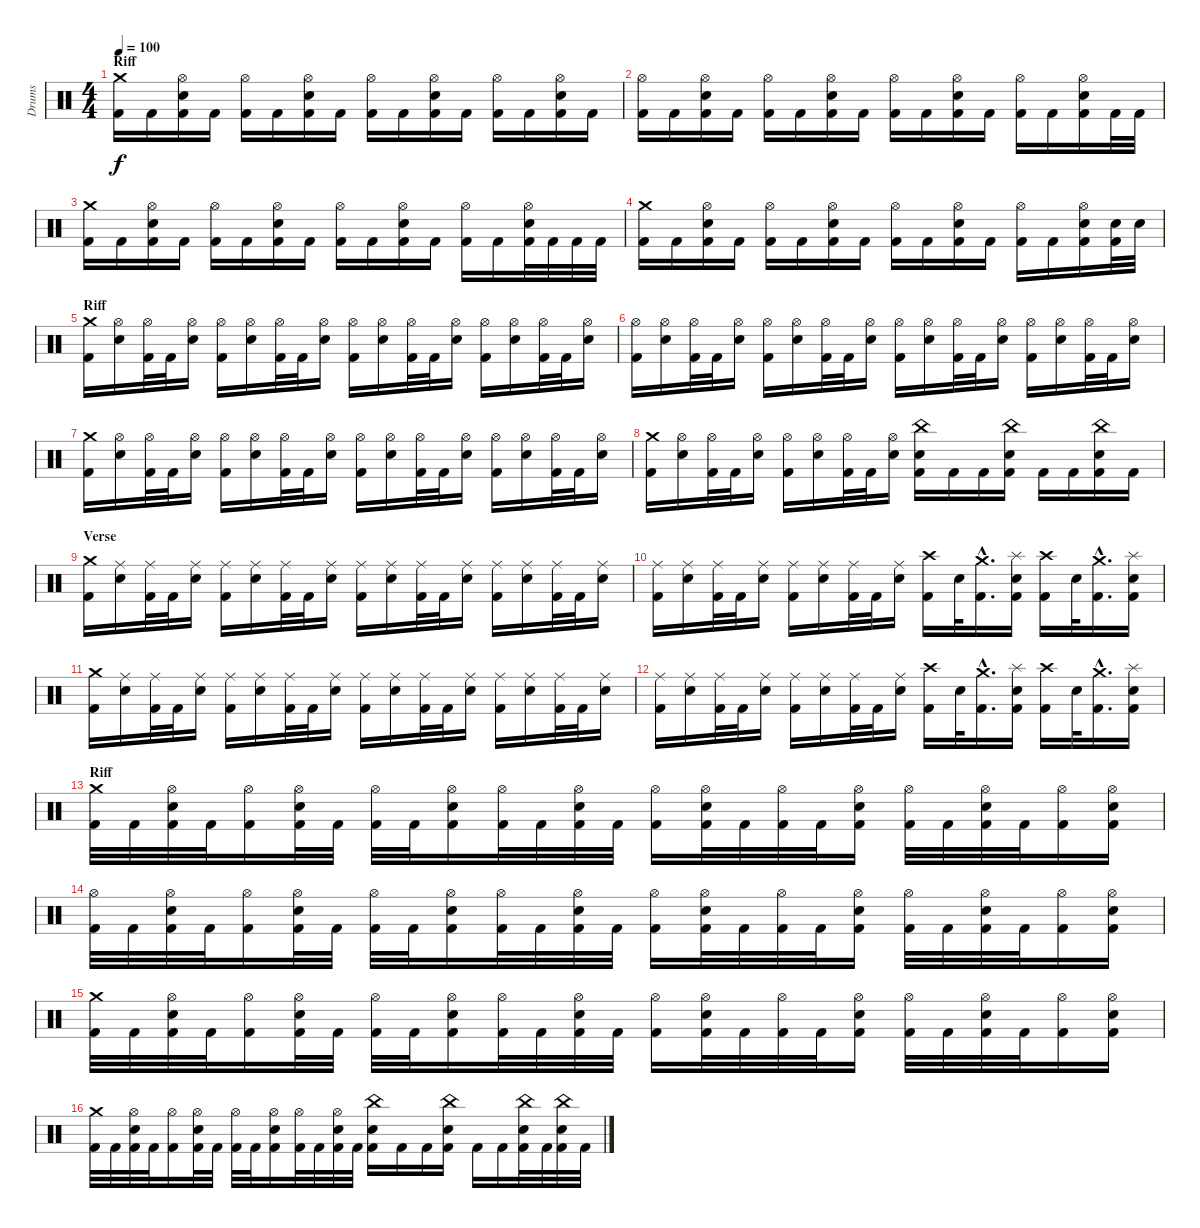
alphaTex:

\track ("Drums" "Drums") {instrument percussion}
\staff {score}
\articulation defaults
\ts (4 4)
\section ("" "Riff")
\tempo 100
\clef neutral
\ks c
("Crash medium (hit)" "Kick (hit) 2").16{dy f volume 15} "Kick (hit) 2".16 ("Hi-Hat (open)" "Electric Snare (hit)" "Kick (hit) 2").16 "Kick (hit) 2".16 ("Hi-Hat (open)" "Kick (hit) 2").16 "Kick (hit) 2".16 ("Hi-Hat (open)" "Electric Snare (hit)" "Kick (hit) 2").16 "Kick (hit) 2".16 ("Hi-Hat (open)" "Kick (hit) 2").16 "Kick (hit) 2".16 ("Hi-Hat (open)" "Electric Snare (hit)" "Kick (hit) 2").16 "Kick (hit) 2".16 ("Hi-Hat (open)" "Kick (hit) 2").16 "Kick (hit) 2".16 ("Hi-Hat (open)" "Electric Snare (hit)" "Kick (hit) 2").16 "Kick (hit) 2".16 |
("Hi-Hat (open)" "Kick (hit) 2").16 "Kick (hit) 2".16 ("Hi-Hat (open)" "Electric Snare (hit)" "Kick (hit) 2").16 "Kick (hit) 2".16 ("Hi-Hat (open)" "Kick (hit) 2").16 "Kick (hit) 2".16 ("Hi-Hat (open)" "Electric Snare (hit)" "Kick (hit) 2").16 "Kick (hit) 2".16 ("Hi-Hat (open)" "Kick (hit) 2").16 "Kick (hit) 2".16 ("Hi-Hat (open)" "Electric Snare (hit)" "Kick (hit) 2").16 "Kick (hit) 2".16 ("Hi-Hat (open)" "Kick (hit) 2").16 "Kick (hit) 2".16 ("Hi-Hat (open)" "Electric Snare (hit)" "Kick (hit) 2").16 "Kick (hit) 2".32 "Kick (hit) 2".32 |
("Crash medium (hit)" "Kick (hit) 2").16 "Kick (hit) 2".16 ("Hi-Hat (open)" "Electric Snare (hit)" "Kick (hit) 2").16 "Kick (hit) 2".16 ("Hi-Hat (open)" "Kick (hit) 2").16 "Kick (hit) 2".16 ("Hi-Hat (open)" "Electric Snare (hit)" "Kick (hit) 2").16 "Kick (hit) 2".16 ("Hi-Hat (open)" "Kick (hit) 2").16 "Kick (hit) 2".16 ("Hi-Hat (open)" "Electric Snare (hit)" "Kick (hit) 2").16 "Kick (hit) 2".16 ("Hi-Hat (open)" "Kick (hit) 2").16 "Kick (hit) 2".16 ("Hi-Hat (open)" "Electric Snare (hit)" "Kick (hit) 2").32 "Kick (hit) 2".32 "Kick (hit) 2".32 "Kick (hit) 2".32 |
("Crash medium (hit)" "Kick (hit) 2").16 "Kick (hit) 2".16 ("Hi-Hat (open)" "Electric Snare (hit)" "Kick (hit) 2").16 "Kick (hit) 2".16 ("Hi-Hat (open)" "Kick (hit) 2").16 "Kick (hit) 2".16 ("Hi-Hat (open)" "Electric Snare (hit)" "Kick (hit) 2").16 "Kick (hit) 2".16 ("Hi-Hat (open)" "Kick (hit) 2").16 "Kick (hit) 2".16 ("Hi-Hat (open)" "Electric Snare (hit)" "Kick (hit) 2").16 "Kick (hit) 2".16 ("Hi-Hat (open)" "Kick (hit) 2").16 "Kick (hit) 2".16 ("Hi-Hat (open)" "Electric Snare (hit)" "Kick (hit) 2").16 ("Electric Snare (hit)" "Kick (hit) 2").32 "Electric Snare (hit)".32 |
\section ("" "Riff")
("Crash medium (hit)" "Kick (hit) 2").16 ("Hi-Hat (open)" "Electric Snare (hit)").16 ("Hi-Hat (open)" "Kick (hit) 2").32 "Kick (hit) 2".32 ("Hi-Hat (open)" "Electric Snare (hit)").16 ("Hi-Hat (open)" "Kick (hit) 2").16 ("Hi-Hat (open)" "Electric Snare (hit)").16 ("Hi-Hat (open)" "Kick (hit) 2").32 "Kick (hit) 2".32 ("Hi-Hat (open)" "Electric Snare (hit)").16 ("Hi-Hat (open)" "Kick (hit) 2").16 ("Hi-Hat (open)" "Electric Snare (hit)").16 ("Hi-Hat (open)" "Kick (hit) 2").32 "Kick (hit) 2".32 ("Hi-Hat (open)" "Electric Snare (hit)").16 ("Hi-Hat (open)" "Kick (hit) 2").16 ("Hi-Hat (open)" "Electric Snare (hit)").16 ("Hi-Hat (open)" "Kick (hit) 2").32 "Kick (hit) 2".32 ("Hi-Hat (open)" "Electric Snare (hit)").16 |
("Hi-Hat (open)" "Kick (hit) 2").16 ("Hi-Hat (open)" "Electric Snare (hit)").16 ("Hi-Hat (open)" "Kick (hit) 2").32 "Kick (hit) 2".32 ("Hi-Hat (open)" "Electric Snare (hit)").16 ("Hi-Hat (open)" "Kick (hit) 2").16 ("Hi-Hat (open)" "Electric Snare (hit)").16 ("Hi-Hat (open)" "Kick (hit) 2").32 "Kick (hit) 2".32 ("Hi-Hat (open)" "Electric Snare (hit)").16 ("Hi-Hat (open)" "Kick (hit) 2").16 ("Hi-Hat (open)" "Electric Snare (hit)").16 ("Hi-Hat (open)" "Kick (hit) 2").32 "Kick (hit) 2".32 ("Hi-Hat (open)" "Electric Snare (hit)").16 ("Hi-Hat (open)" "Kick (hit) 2").16 ("Hi-Hat (open)" "Electric Snare (hit)").16 ("Hi-Hat (open)" "Kick (hit) 2").32 "Kick (hit) 2".32 ("Hi-Hat (open)" "Electric Snare (hit)").16 |
("Crash medium (hit)" "Kick (hit) 2").16 ("Hi-Hat (open)" "Electric Snare (hit)").16 ("Hi-Hat (open)" "Kick (hit) 2").32 "Kick (hit) 2".32 ("Hi-Hat (open)" "Electric Snare (hit)").16 ("Hi-Hat (open)" "Kick (hit) 2").16 ("Hi-Hat (open)" "Electric Snare (hit)").16 ("Hi-Hat (open)" "Kick (hit) 2").32 "Kick (hit) 2".32 ("Hi-Hat (open)" "Electric Snare (hit)").16 ("Hi-Hat (open)" "Kick (hit) 2").16 ("Hi-Hat (open)" "Electric Snare (hit)").16 ("Hi-Hat (open)" "Kick (hit) 2").32 "Kick (hit) 2".32 ("Hi-Hat (open)" "Electric Snare (hit)").16 ("Hi-Hat (open)" "Kick (hit) 2").16 ("Hi-Hat (open)" "Electric Snare (hit)").16 ("Hi-Hat (open)" "Kick (hit) 2").32 "Kick (hit) 2".32 ("Hi-Hat (open)" "Electric Snare (hit)").16 |
("Crash medium (hit)" "Kick (hit) 2").16 ("Hi-Hat (open)" "Electric Snare (hit)").16 ("Hi-Hat (open)" "Kick (hit) 2").32 "Kick (hit) 2".32 ("Hi-Hat (open)" "Electric Snare (hit)").16 ("Hi-Hat (open)" "Kick (hit) 2").16 ("Hi-Hat (open)" "Electric Snare (hit)").16 ("Hi-Hat (open)" "Kick (hit) 2").32 "Kick (hit) 2".32 ("Hi-Hat (open)" "Electric Snare (hit)").16 ("China (hit)" "Electric Snare (hit)" "Kick (hit) 2").16 "Kick (hit) 2".16 "Kick (hit) 2".16 ("China (hit)" "Electric Snare (hit)" "Kick (hit) 2").16 "Kick (hit) 2".16 "Kick (hit) 2".16 ("China (hit)" "Electric Snare (hit)" "Kick (hit) 2").16 "Kick (hit) 2".16 |
\section ("" "Verse")
("Crash medium (hit)" "Kick (hit) 2").16 ("Ride (middle)" "Electric Snare (hit)").16 ("Ride (middle)" "Kick (hit) 2").32 "Kick (hit) 2".32 ("Ride (middle)" "Electric Snare (hit)").16 ("Ride (middle)" "Kick (hit) 2").16 ("Ride (middle)" "Electric Snare (hit)").16 ("Ride (middle)" "Kick (hit) 2").32 "Kick (hit) 2".32 ("Ride (middle)" "Electric Snare (hit)").16 ("Ride (middle)" "Kick (hit) 2").16 ("Ride (middle)" "Electric Snare (hit)").16 ("Ride (middle)" "Kick (hit) 2").32 "Kick (hit) 2".32 ("Ride (middle)" "Electric Snare (hit)").16 ("Ride (middle)" "Kick (hit) 2").16 ("Ride (middle)" "Electric Snare (hit)").16 ("Ride (middle)" "Kick (hit) 2").32 "Kick (hit) 2".32 ("Ride (middle)" "Electric Snare (hit)").16 |
("Ride (middle)" "Kick (hit) 2").16 ("Ride (middle)" "Electric Snare (hit)").16 ("Ride (middle)" "Kick (hit) 2").32 "Kick (hit) 2".32 ("Ride (middle)" "Electric Snare (hit)").16 ("Ride (middle)" "Kick (hit) 2").16 ("Ride (middle)" "Electric Snare (hit)").16 ("Ride (middle)" "Kick (hit) 2").32 "Kick (hit) 2".32 ("Ride (middle)" "Electric Snare (hit)").16 ("Crash high (hit)" "Kick (hit) 2").16 "Electric Snare (hit)".32 ("Crash medium (hit)"{hac} "Kick (hit) 2"{hac}).16{d} ("Splash (hit)" "Electric Snare (hit)" "Kick (hit) 2").16 ("Crash high (hit)" "Kick (hit) 2").16 "Electric Snare (hit)".32 ("Crash medium (hit)"{hac} "Kick (hit) 2"{hac}).16{d} ("Splash (hit)" "Electric Snare (hit)" "Kick (hit) 2").16 |
("Crash medium (hit)" "Kick (hit) 2").16 ("Ride (middle)" "Electric Snare (hit)").16 ("Ride (middle)" "Kick (hit) 2").32 "Kick (hit) 2".32 ("Ride (middle)" "Electric Snare (hit)").16 ("Ride (middle)" "Kick (hit) 2").16 ("Ride (middle)" "Electric Snare (hit)").16 ("Ride (middle)" "Kick (hit) 2").32 "Kick (hit) 2".32 ("Ride (middle)" "Electric Snare (hit)").16 ("Ride (middle)" "Kick (hit) 2").16 ("Ride (middle)" "Electric Snare (hit)").16 ("Ride (middle)" "Kick (hit) 2").32 "Kick (hit) 2".32 ("Ride (middle)" "Electric Snare (hit)").16 ("Ride (middle)" "Kick (hit) 2").16 ("Ride (middle)" "Electric Snare (hit)").16 ("Ride (middle)" "Kick (hit) 2").32 "Kick (hit) 2".32 ("Ride (middle)" "Electric Snare (hit)").16 |
("Ride (middle)" "Kick (hit) 2").16 ("Ride (middle)" "Electric Snare (hit)").16 ("Ride (middle)" "Kick (hit) 2").32 "Kick (hit) 2".32 ("Ride (middle)" "Electric Snare (hit)").16 ("Ride (middle)" "Kick (hit) 2").16 ("Ride (middle)" "Electric Snare (hit)").16 ("Ride (middle)" "Kick (hit) 2").32 "Kick (hit) 2".32 ("Ride (middle)" "Electric Snare (hit)").16 ("Crash high (hit)" "Kick (hit) 2").16 "Electric Snare (hit)".32 ("Crash medium (hit)"{hac} "Kick (hit) 2"{hac}).16{d} ("Splash (hit)" "Electric Snare (hit)" "Kick (hit) 2").16 ("Crash high (hit)" "Kick (hit) 2").16 "Electric Snare (hit)".32 ("Crash medium (hit)"{hac} "Kick (hit) 2"{hac}).16{d} ("Splash (hit)" "Electric Snare (hit)" "Kick (hit) 2").16 |
\section ("" "Riff")
("Crash medium (hit)" "Kick (hit) 2").32 "Kick (hit) 2".32 ("Hi-Hat (open)" "Electric Snare (hit)" "Kick (hit) 2").32 "Kick (hit) 2".32 ("Hi-Hat (open)" "Kick (hit) 2").16 ("Hi-Hat (open)" "Electric Snare (hit)" "Kick (hit) 2").32 "Kick (hit) 2".32 ("Hi-Hat (open)" "Kick (hit) 2").32 "Kick (hit) 2".32 ("Hi-Hat (open)" "Electric Snare (hit)" "Kick (hit) 2").16 ("Hi-Hat (open)" "Kick (hit) 2").32 "Kick (hit) 2".32 ("Hi-Hat (open)" "Electric Snare (hit)" "Kick (hit) 2").32 "Kick (hit) 2".32 ("Hi-Hat (open)" "Kick (hit) 2").16 ("Hi-Hat (open)" "Electric Snare (hit)" "Kick (hit) 2").32 "Kick (hit) 2".32 ("Hi-Hat (open)" "Kick (hit) 2").32 "Kick (hit) 2".32 ("Hi-Hat (open)" "Electric Snare (hit)" "Kick (hit) 2").16 ("Hi-Hat (open)" "Kick (hit) 2").32 "Kick (hit) 2".32 ("Hi-Hat (open)" "Electric Snare (hit)" "Kick (hit) 2").32 "Kick (hit) 2".32 ("Hi-Hat (open)" "Kick (hit) 2").16 ("Hi-Hat (open)" "Electric Snare (hit)" "Kick (hit) 2").16 |
("Hi-Hat (open)" "Kick (hit) 2").32 "Kick (hit) 2".32 ("Hi-Hat (open)" "Electric Snare (hit)" "Kick (hit) 2").32 "Kick (hit) 2".32 ("Hi-Hat (open)" "Kick (hit) 2").16 ("Hi-Hat (open)" "Electric Snare (hit)" "Kick (hit) 2").32 "Kick (hit) 2".32 ("Hi-Hat (open)" "Kick (hit) 2").32 "Kick (hit) 2".32 ("Hi-Hat (open)" "Electric Snare (hit)" "Kick (hit) 2").16 ("Hi-Hat (open)" "Kick (hit) 2").32 "Kick (hit) 2".32 ("Hi-Hat (open)" "Electric Snare (hit)" "Kick (hit) 2").32 "Kick (hit) 2".32 ("Hi-Hat (open)" "Kick (hit) 2").16 ("Hi-Hat (open)" "Electric Snare (hit)" "Kick (hit) 2").32 "Kick (hit) 2".32 ("Hi-Hat (open)" "Kick (hit) 2").32 "Kick (hit) 2".32 ("Hi-Hat (open)" "Electric Snare (hit)" "Kick (hit) 2").16 ("Hi-Hat (open)" "Kick (hit) 2").32 "Kick (hit) 2".32 ("Hi-Hat (open)" "Electric Snare (hit)" "Kick (hit) 2").32 "Kick (hit) 2".32 ("Hi-Hat (open)" "Kick (hit) 2").16 ("Hi-Hat (open)" "Electric Snare (hit)" "Kick (hit) 2").16 |
("Crash medium (hit)" "Kick (hit) 2").32 "Kick (hit) 2".32 ("Hi-Hat (open)" "Electric Snare (hit)" "Kick (hit) 2").32 "Kick (hit) 2".32 ("Hi-Hat (open)" "Kick (hit) 2").16 ("Hi-Hat (open)" "Electric Snare (hit)" "Kick (hit) 2").32 "Kick (hit) 2".32 ("Hi-Hat (open)" "Kick (hit) 2").32 "Kick (hit) 2".32 ("Hi-Hat (open)" "Electric Snare (hit)" "Kick (hit) 2").16 ("Hi-Hat (open)" "Kick (hit) 2").32 "Kick (hit) 2".32 ("Hi-Hat (open)" "Electric Snare (hit)" "Kick (hit) 2").32 "Kick (hit) 2".32 ("Hi-Hat (open)" "Kick (hit) 2").16 ("Hi-Hat (open)" "Electric Snare (hit)" "Kick (hit) 2").32 "Kick (hit) 2".32 ("Hi-Hat (open)" "Kick (hit) 2").32 "Kick (hit) 2".32 ("Hi-Hat (open)" "Electric Snare (hit)" "Kick (hit) 2").16 ("Hi-Hat (open)" "Kick (hit) 2").32 "Kick (hit) 2".32 ("Hi-Hat (open)" "Electric Snare (hit)" "Kick (hit) 2").32 "Kick (hit) 2".32 ("Hi-Hat (open)" "Kick (hit) 2").16 ("Hi-Hat (open)" "Electric Snare (hit)" "Kick (hit) 2").16 |
("Crash medium (hit)" "Kick (hit) 2").32 "Kick (hit) 2".32 ("Hi-Hat (open)" "Electric Snare (hit)" "Kick (hit) 2").32 "Kick (hit) 2".32 ("Hi-Hat (open)" "Kick (hit) 2").16 ("Hi-Hat (open)" "Electric Snare (hit)" "Kick (hit) 2").32 "Kick (hit) 2".32 ("Hi-Hat (open)" "Kick (hit) 2").32 "Kick (hit) 2".32 ("Hi-Hat (open)" "Electric Snare (hit)" "Kick (hit) 2").16 ("Hi-Hat (open)" "Kick (hit) 2").32 "Kick (hit) 2".32 ("Hi-Hat (open)" "Electric Snare (hit)" "Kick (hit) 2").32 "Kick (hit) 2".32 ("China (hit)" "Electric Snare (hit)" "Kick (hit) 2").16 "Kick (hit) 2".16 "Kick (hit) 2".16 ("China (hit)" "Electric Snare (hit)" "Kick (hit) 2").16 "Kick (hit) 2".16 "Kick (hit) 2".16 ("China (hit)" "Electric Snare (hit)" "Kick (hit) 2").32 "Kick (hit) 2".32 ("China (hit)" "Electric Snare (hit)" "Kick (hit) 2").32 "Kick (hit) 2".32
